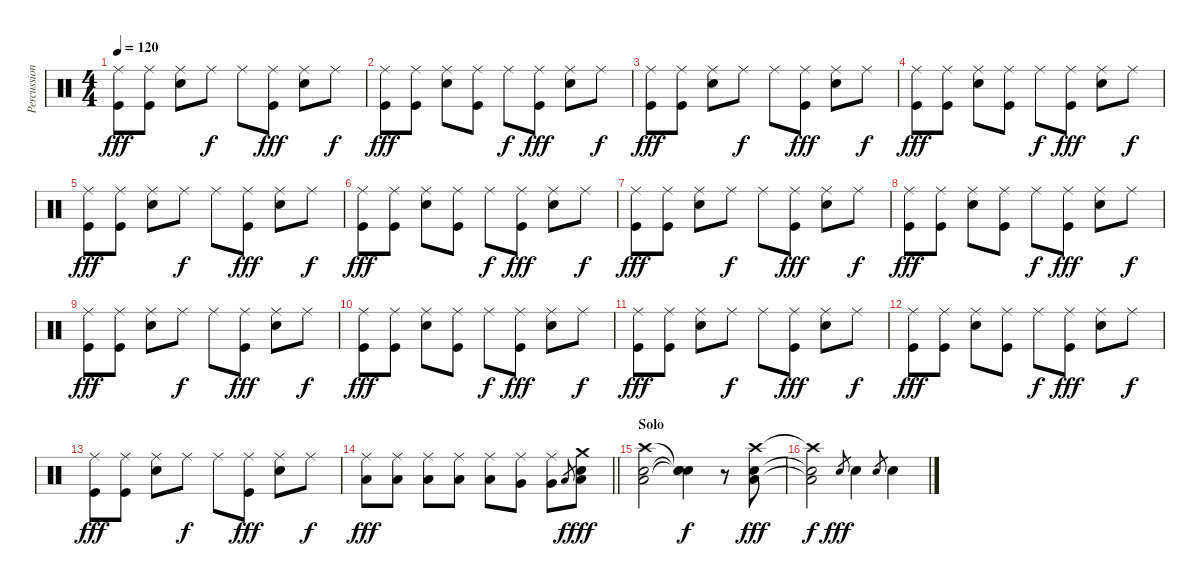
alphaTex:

\track ("Percussion" "Percussion") {solo instrument percussion}
\staff {score}
\articulation defaults
\ts (4 4)
\tempo 120
\clef neutral
\ks c
("Ride (middle)" "Kick (hit)").8{dy fff} ("Ride (middle)" "Kick (hit)").8 ("Ride (middle)" "Snare (hit) 2").8 "Ride (middle)".8{dy f} "Ride (middle)".8 ("Ride (middle)" "Kick (hit)").8{dy fff} ("Ride (middle)" "Snare (hit) 2").8 "Ride (middle)".8{dy f} |
("Ride (middle)" "Kick (hit)").8{dy fff} ("Ride (middle)" "Kick (hit)").8 ("Ride (middle)" "Snare (hit) 2").8 ("Ride (middle)" "Kick (hit)").8 "Ride (middle)".8{dy f} ("Ride (middle)" "Kick (hit)").8{dy fff} ("Ride (middle)" "Snare (hit) 2").8 "Ride (middle)".8{dy f} |
("Ride (middle)" "Kick (hit)").8{dy fff} ("Ride (middle)" "Kick (hit)").8 ("Ride (middle)" "Snare (hit) 2").8 "Ride (middle)".8{dy f} "Ride (middle)".8 ("Ride (middle)" "Kick (hit)").8{dy fff} ("Ride (middle)" "Snare (hit) 2").8 "Ride (middle)".8{dy f} |
("Ride (middle)" "Kick (hit)").8{dy fff} ("Ride (middle)" "Kick (hit)").8 ("Ride (middle)" "Snare (hit) 2").8 ("Ride (middle)" "Kick (hit)").8 "Ride (middle)".8{dy f} ("Ride (middle)" "Kick (hit)").8{dy fff} ("Ride (middle)" "Snare (hit) 2").8 "Ride (middle)".8{dy f} |
("Ride (middle)" "Kick (hit)").8{dy fff} ("Ride (middle)" "Kick (hit)").8 ("Ride (middle)" "Snare (hit) 2").8 "Ride (middle)".8{dy f} "Ride (middle)".8 ("Ride (middle)" "Kick (hit)").8{dy fff} ("Ride (middle)" "Snare (hit) 2").8 "Ride (middle)".8{dy f} |
("Ride (middle)" "Kick (hit)").8{dy fff} ("Ride (middle)" "Kick (hit)").8 ("Ride (middle)" "Snare (hit) 2").8 ("Ride (middle)" "Kick (hit)").8 "Ride (middle)".8{dy f} ("Ride (middle)" "Kick (hit)").8{dy fff} ("Ride (middle)" "Snare (hit) 2").8 "Ride (middle)".8{dy f} |
("Ride (middle)" "Kick (hit)").8{dy fff} ("Ride (middle)" "Kick (hit)").8 ("Ride (middle)" "Snare (hit) 2").8 "Ride (middle)".8{dy f} "Ride (middle)".8 ("Ride (middle)" "Kick (hit)").8{dy fff} ("Ride (middle)" "Snare (hit) 2").8 "Ride (middle)".8{dy f} |
("Ride (middle)" "Kick (hit)").8{dy fff} ("Ride (middle)" "Kick (hit)").8 ("Ride (middle)" "Snare (hit) 2").8 ("Ride (middle)" "Kick (hit)").8 "Ride (middle)".8{dy f} ("Ride (middle)" "Kick (hit)").8{dy fff} ("Ride (middle)" "Snare (hit) 2").8 "Ride (middle)".8{dy f} |
("Ride (middle)" "Kick (hit)").8{dy fff} ("Ride (middle)" "Kick (hit)").8 ("Ride (middle)" "Snare (hit) 2").8 "Ride (middle)".8{dy f} "Ride (middle)".8 ("Ride (middle)" "Kick (hit)").8{dy fff} ("Ride (middle)" "Snare (hit) 2").8 "Ride (middle)".8{dy f} |
("Ride (middle)" "Kick (hit)").8{dy fff} ("Ride (middle)" "Kick (hit)").8 ("Ride (middle)" "Snare (hit) 2").8 ("Ride (middle)" "Kick (hit)").8 "Ride (middle)".8{dy f} ("Ride (middle)" "Kick (hit)").8{dy fff} ("Ride (middle)" "Snare (hit) 2").8 "Ride (middle)".8{dy f} |
("Ride (middle)" "Kick (hit)").8{dy fff} ("Ride (middle)" "Kick (hit)").8 ("Ride (middle)" "Snare (hit) 2").8 "Ride (middle)".8{dy f} "Ride (middle)".8 ("Ride (middle)" "Kick (hit)").8{dy fff} ("Ride (middle)" "Snare (hit) 2").8 "Ride (middle)".8{dy f} |
("Ride (middle)" "Kick (hit)").8{dy fff} ("Ride (middle)" "Kick (hit)").8 ("Ride (middle)" "Snare (hit) 2").8 ("Ride (middle)" "Kick (hit)").8 "Ride (middle)".8{dy f} ("Ride (middle)" "Kick (hit)").8{dy fff} ("Ride (middle)" "Snare (hit) 2").8 "Ride (middle)".8{dy f} |
("Ride (middle)" "Kick (hit)").8{dy fff} ("Ride (middle)" "Kick (hit)").8 ("Ride (middle)" "Snare (hit) 2").8 "Ride (middle)".8{dy f} "Ride (middle)".8 ("Ride (middle)" "Kick (hit)").8{dy fff} ("Ride (middle)" "Snare (hit) 2").8 "Ride (middle)".8{dy f} |
\barLineRight lightlight
("Ride (middle)" "Low Tom (hit)").8{dy fff} ("Ride (middle)" "Low Tom (hit)").8 ("Ride (middle)" "Low Tom (hit)").8 ("Ride (middle)" "Low Tom (hit)").8 ("Ride (middle)" "Low Tom (hit)").8 ("Ride (middle)" "Very Low Tom (hit)").8 ("Ride (middle)" "Very Low Tom (hit)").8 "Low Tom (hit)".8{gr dy f} ("Crash medium (hit)" "Low Tom (hit)" "Snare (hit) 2").8{dy fff} |
\section ("" "Solo")
("Crash high (hit)" "Low Tom (hit)" "Snare (hit) 2").2 ("Snare (hit)"{t} "Snare (hit)"{t} "Snare (hit)"{t}).4{dy f} r.8 ("Crash high (hit)" "Low Floor Tom (hit)" "Snare (hit) 2").8{dy fff} |
("Crash high (hit)"{t} "Low Floor Tom (hit)"{t} "Snare (hit) 2"{t}).2{dy f} "Snare (hit) 2".8{gr dy fff} "Snare (hit) 2".4 "Snare (hit) 2".8{gr} "Snare (hit) 2".4
